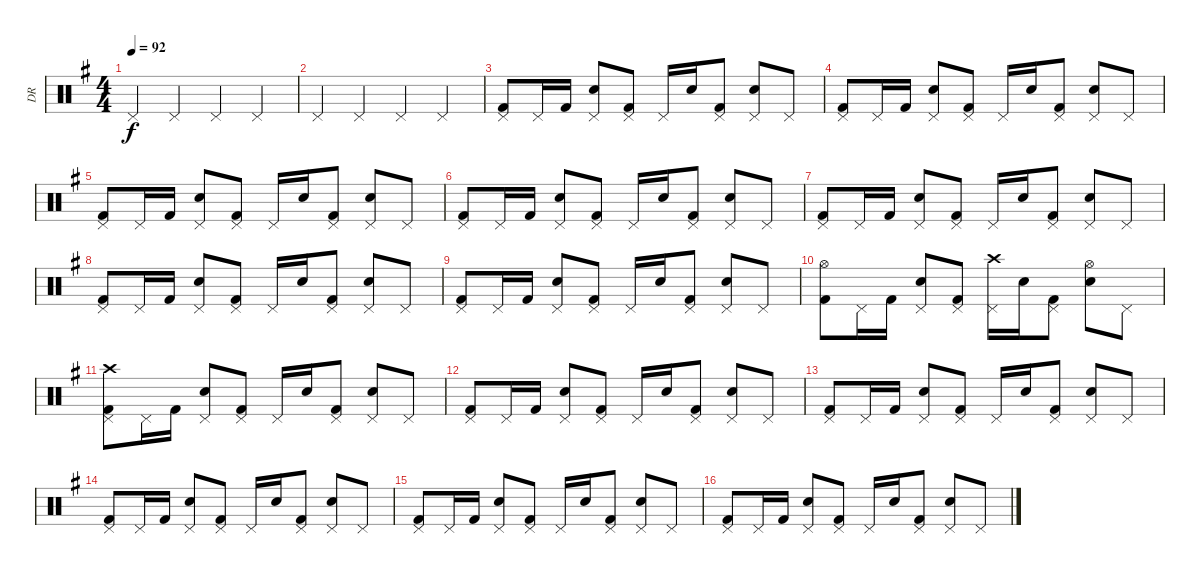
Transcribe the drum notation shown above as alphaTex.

\track ("DR" "DR") {instrument percussion}
\staff {score}
\articulation defaults
\ts (4 4)
\tempo 92
\clef neutral
\ks g "Pedal Hi-Hat (hit)".4{dy f} "Pedal Hi-Hat (hit)".4 "Pedal Hi-Hat (hit)".4 "Pedal Hi-Hat (hit)".4
|
"Pedal Hi-Hat (hit)".4 "Pedal Hi-Hat (hit)".4 "Pedal Hi-Hat (hit)".4 "Pedal Hi-Hat (hit)".4 |
("Pedal Hi-Hat (hit)" "Kick (hit) 2").8 "Pedal Hi-Hat (hit)".16 "Kick (hit) 2".16 ("Pedal Hi-Hat (hit)" "Electric Snare (hit)").8 ("Pedal Hi-Hat (hit)" "Kick (hit) 2").8 "Pedal Hi-Hat (hit)".16 "Electric Snare (hit)".16 ("Pedal Hi-Hat (hit)" "Kick (hit) 2").8 ("Pedal Hi-Hat (hit)" "Electric Snare (hit)").8 "Pedal Hi-Hat (hit)".8 |
("Pedal Hi-Hat (hit)" "Kick (hit) 2").8 "Pedal Hi-Hat (hit)".16 "Kick (hit) 2".16 ("Pedal Hi-Hat (hit)" "Electric Snare (hit)").8 ("Pedal Hi-Hat (hit)" "Kick (hit) 2").8 "Pedal Hi-Hat (hit)".16 "Electric Snare (hit)".16 ("Pedal Hi-Hat (hit)" "Kick (hit) 2").8 ("Pedal Hi-Hat (hit)" "Electric Snare (hit)").8 "Pedal Hi-Hat (hit)".8 |
("Pedal Hi-Hat (hit)" "Kick (hit) 2").8 "Pedal Hi-Hat (hit)".16 "Kick (hit) 2".16 ("Pedal Hi-Hat (hit)" "Electric Snare (hit)").8 ("Pedal Hi-Hat (hit)" "Kick (hit) 2").8 "Pedal Hi-Hat (hit)".16 "Electric Snare (hit)".16 ("Pedal Hi-Hat (hit)" "Kick (hit) 2").8 ("Pedal Hi-Hat (hit)" "Electric Snare (hit)").8 "Pedal Hi-Hat (hit)".8 |
("Pedal Hi-Hat (hit)" "Kick (hit) 2").8 "Pedal Hi-Hat (hit)".16 "Kick (hit) 2".16 ("Pedal Hi-Hat (hit)" "Electric Snare (hit)").8 ("Pedal Hi-Hat (hit)" "Kick (hit) 2").8 "Pedal Hi-Hat (hit)".16 "Electric Snare (hit)".16 ("Pedal Hi-Hat (hit)" "Kick (hit) 2").8 ("Pedal Hi-Hat (hit)" "Electric Snare (hit)").8 "Pedal Hi-Hat (hit)".8 |
("Pedal Hi-Hat (hit)" "Kick (hit) 2").8 "Pedal Hi-Hat (hit)".16 "Kick (hit) 2".16 ("Pedal Hi-Hat (hit)" "Electric Snare (hit)").8 ("Pedal Hi-Hat (hit)" "Kick (hit) 2").8 "Pedal Hi-Hat (hit)".16 "Electric Snare (hit)".16 ("Pedal Hi-Hat (hit)" "Kick (hit) 2").8 ("Pedal Hi-Hat (hit)" "Electric Snare (hit)").8 "Pedal Hi-Hat (hit)".8 |
("Pedal Hi-Hat (hit)" "Kick (hit) 2").8 "Pedal Hi-Hat (hit)".16 "Kick (hit) 2".16 ("Pedal Hi-Hat (hit)" "Electric Snare (hit)").8 ("Pedal Hi-Hat (hit)" "Kick (hit) 2").8 "Pedal Hi-Hat (hit)".16 "Electric Snare (hit)".16 ("Pedal Hi-Hat (hit)" "Kick (hit) 2").8 ("Pedal Hi-Hat (hit)" "Electric Snare (hit)").8 "Pedal Hi-Hat (hit)".8 |
("Pedal Hi-Hat (hit)" "Kick (hit) 2").8 "Pedal Hi-Hat (hit)".16 "Kick (hit) 2".16 ("Pedal Hi-Hat (hit)" "Electric Snare (hit)").8 ("Pedal Hi-Hat (hit)" "Kick (hit) 2").8 "Pedal Hi-Hat (hit)".16 "Electric Snare (hit)".16 ("Pedal Hi-Hat (hit)" "Kick (hit) 2").8 ("Pedal Hi-Hat (hit)" "Electric Snare (hit)").8 "Pedal Hi-Hat (hit)".8 |
("Hi-Hat (open)" "Kick (hit) 2").8 "Pedal Hi-Hat (hit)".16 "Kick (hit) 2".16 ("Pedal Hi-Hat (hit)" "Electric Snare (hit)").8 ("Pedal Hi-Hat (hit)" "Kick (hit) 2").8 ("Crash high (hit)" "Pedal Hi-Hat (hit)").16 "Electric Snare (hit)".16 ("Pedal Hi-Hat (hit)" "Kick (hit) 2").8 ("Hi-Hat (open)" "Electric Snare (hit)").8 "Pedal Hi-Hat (hit)".8 |
("Crash high (hit)" "Pedal Hi-Hat (hit)" "Kick (hit) 2").8 "Pedal Hi-Hat (hit)".16 "Kick (hit) 2".16 ("Pedal Hi-Hat (hit)" "Electric Snare (hit)").8 ("Pedal Hi-Hat (hit)" "Kick (hit) 2").8 "Pedal Hi-Hat (hit)".16 "Electric Snare (hit)".16 ("Pedal Hi-Hat (hit)" "Kick (hit) 2").8 ("Pedal Hi-Hat (hit)" "Electric Snare (hit)").8 "Pedal Hi-Hat (hit)".8 |
("Pedal Hi-Hat (hit)" "Kick (hit) 2").8 "Pedal Hi-Hat (hit)".16 "Kick (hit) 2".16 ("Pedal Hi-Hat (hit)" "Electric Snare (hit)").8 ("Pedal Hi-Hat (hit)" "Kick (hit) 2").8 "Pedal Hi-Hat (hit)".16 "Electric Snare (hit)".16 ("Pedal Hi-Hat (hit)" "Kick (hit) 2").8 ("Pedal Hi-Hat (hit)" "Electric Snare (hit)").8 "Pedal Hi-Hat (hit)".8 |
("Pedal Hi-Hat (hit)" "Kick (hit) 2").8 "Pedal Hi-Hat (hit)".16 "Kick (hit) 2".16 ("Pedal Hi-Hat (hit)" "Electric Snare (hit)").8 ("Pedal Hi-Hat (hit)" "Kick (hit) 2").8 "Pedal Hi-Hat (hit)".16 "Electric Snare (hit)".16 ("Pedal Hi-Hat (hit)" "Kick (hit) 2").8 ("Pedal Hi-Hat (hit)" "Electric Snare (hit)").8 "Pedal Hi-Hat (hit)".8 |
("Pedal Hi-Hat (hit)" "Kick (hit) 2").8 "Pedal Hi-Hat (hit)".16 "Kick (hit) 2".16 ("Pedal Hi-Hat (hit)" "Electric Snare (hit)").8 ("Pedal Hi-Hat (hit)" "Kick (hit) 2").8 "Pedal Hi-Hat (hit)".16 "Electric Snare (hit)".16 ("Pedal Hi-Hat (hit)" "Kick (hit) 2").8 ("Pedal Hi-Hat (hit)" "Electric Snare (hit)").8 "Pedal Hi-Hat (hit)".8 |
("Pedal Hi-Hat (hit)" "Kick (hit) 2").8 "Pedal Hi-Hat (hit)".16 "Kick (hit) 2".16 ("Pedal Hi-Hat (hit)" "Electric Snare (hit)").8 ("Pedal Hi-Hat (hit)" "Kick (hit) 2").8 "Pedal Hi-Hat (hit)".16 "Electric Snare (hit)".16 ("Pedal Hi-Hat (hit)" "Kick (hit) 2").8 ("Pedal Hi-Hat (hit)" "Electric Snare (hit)").8 "Pedal Hi-Hat (hit)".8 |
("Pedal Hi-Hat (hit)" "Kick (hit) 2").8 "Pedal Hi-Hat (hit)".16 "Kick (hit) 2".16 ("Pedal Hi-Hat (hit)" "Electric Snare (hit)").8 ("Pedal Hi-Hat (hit)" "Kick (hit) 2").8 "Pedal Hi-Hat (hit)".16 "Electric Snare (hit)".16 ("Pedal Hi-Hat (hit)" "Kick (hit) 2").8 ("Pedal Hi-Hat (hit)" "Electric Snare (hit)").8 "Pedal Hi-Hat (hit)".8
